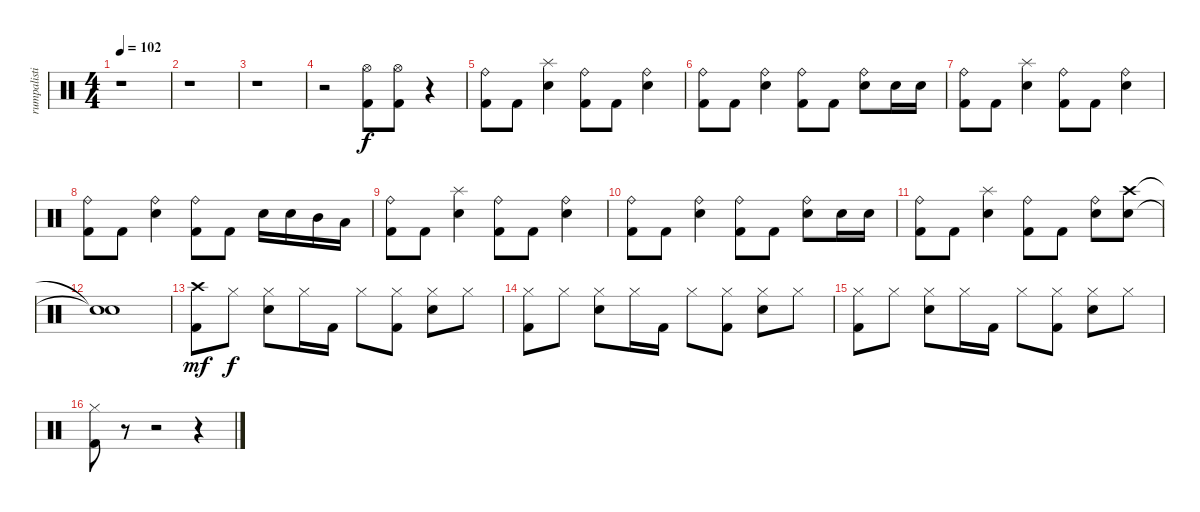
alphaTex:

\track ("rumpalisti" "rumpalisti") {instrument percussion}
\staff {score}
\articulation defaults
\ts (4 4)
\tempo 102
\clef neutral
\ks c
r.1{dy f} |
r.1 |
r.1 |
r.2 ("Kick (hit) 2" "Hi-Hat (open)").8 ("Kick (hit) 2" "Hi-Hat (open)").8 r.4 |
("Kick (hit) 2" "Ride (bell)").8 "Kick (hit) 2".8 ("Splash (hit)" "Snare (hit) 2").4 ("Kick (hit) 2" "Ride (bell)").8 "Kick (hit) 2".8 ("Ride (bell)" "Snare (hit) 2").4 |
("Kick (hit) 2" "Ride (bell)").8 "Kick (hit) 2".8 ("Ride (bell)" "Snare (hit) 2").4 ("Kick (hit) 2" "Ride (bell)").8 "Kick (hit) 2".8 ("Ride (bell)" "Snare (hit) 2").8 "Snare (hit) 2".16 "Snare (hit) 2".16 |
("Kick (hit) 2" "Ride (bell)").8 "Kick (hit) 2".8 ("Splash (hit)" "Snare (hit) 2").4 ("Kick (hit) 2" "Ride (bell)").8 "Kick (hit) 2".8 ("Ride (bell)" "Snare (hit) 2").4 |
("Kick (hit) 2" "Ride (bell)").8 "Kick (hit) 2".8 ("Ride (bell)" "Snare (hit) 2").4 ("Kick (hit) 2" "Ride (bell)").8 "Kick (hit) 2".8 "Snare (hit) 2".16 "Snare (hit) 2".16 "Mid Tom (hit)".16 "Low Tom (hit)".16 |
("Kick (hit) 2" "Ride (bell)").8 "Kick (hit) 2".8 ("Splash (hit)" "Snare (hit) 2").4 ("Kick (hit) 2" "Ride (bell)").8 "Kick (hit) 2".8 ("Ride (bell)" "Snare (hit) 2").4 |
("Kick (hit) 2" "Ride (bell)").8 "Kick (hit) 2".8 ("Ride (bell)" "Snare (hit) 2").4 ("Kick (hit) 2" "Ride (bell)").8 "Kick (hit) 2".8 ("Ride (bell)" "Snare (hit) 2").8 "Snare (hit) 2".16 "Snare (hit) 2".16 |
("Kick (hit) 2" "Ride (bell)").8 "Kick (hit) 2".8 ("Splash (hit)" "Snare (hit) 2").4 ("Kick (hit) 2" "Ride (bell)").8 "Kick (hit) 2".8 ("Ride (bell)" "Snare (hit) 2").8 ("Crash high (hit)" "Snare (hit) 2").8 |
("Snare (hit)"{t} "Snare (hit)"{t}).1 |
("Kick (hit) 2" "Crash high (hit)").8{dy mf} "Hi-Hat (closed)".8{dy f} ("Hi-Hat (closed)" "Snare (hit) 2").8 "Hi-Hat (closed)".16 "Kick (hit) 2".16 "Hi-Hat (closed)".8 ("Kick (hit) 2" "Hi-Hat (closed)").8 ("Hi-Hat (closed)" "Snare (hit) 2").8 "Hi-Hat (closed)".8 |
("Kick (hit) 2" "Hi-Hat (closed)").8 "Hi-Hat (closed)".8 ("Hi-Hat (closed)" "Snare (hit) 2").8 "Hi-Hat (closed)".16 "Kick (hit) 2".16 "Hi-Hat (closed)".8 ("Kick (hit) 2" "Hi-Hat (closed)").8 ("Hi-Hat (closed)" "Snare (hit) 2").8 "Hi-Hat (closed)".8 |
("Kick (hit) 2" "Hi-Hat (closed)").8 "Hi-Hat (closed)".8 ("Hi-Hat (closed)" "Snare (hit) 2").8 "Hi-Hat (closed)".16 "Kick (hit) 2".16 "Hi-Hat (closed)".8 ("Kick (hit) 2" "Hi-Hat (closed)").8 ("Hi-Hat (closed)" "Snare (hit) 2").8 "Hi-Hat (closed)".8 |
("Kick (hit) 2" "Hi-Hat (closed)").8 r.8 r.2 r.4
